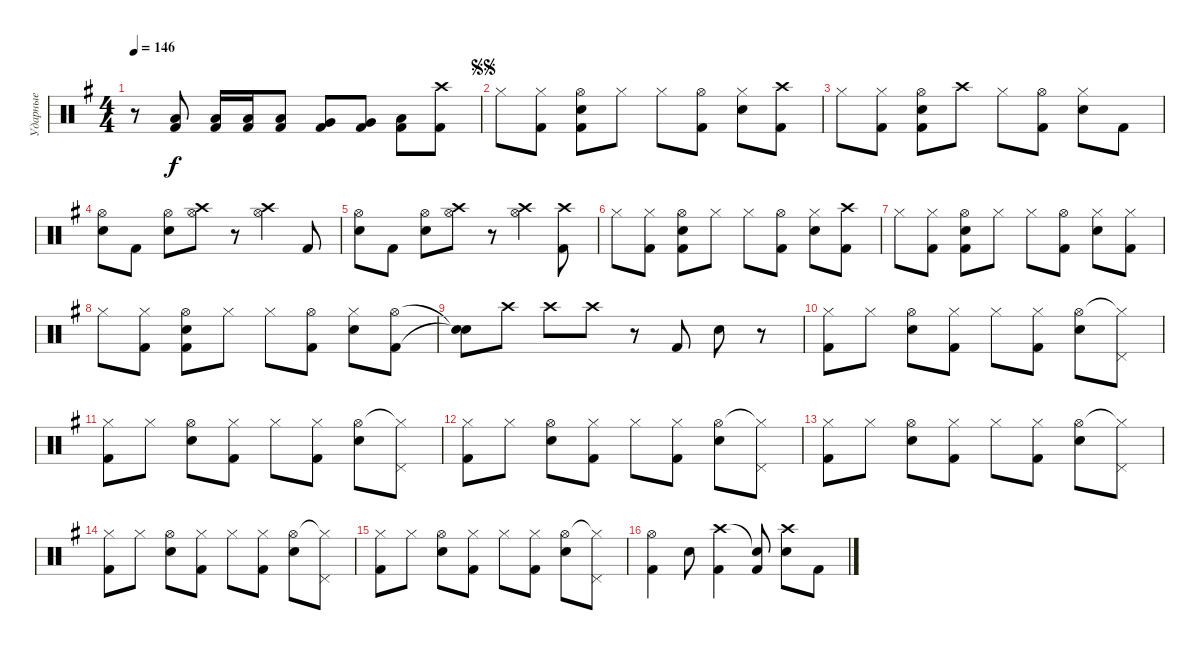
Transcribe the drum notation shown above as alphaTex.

\track ("Ударные" "Ударные") {instrument percussion}
\staff {score}
\articulation defaults
\ts (4 4)
\tempo 146
\clef neutral
\ks g
r.8{dy f} ("Low Tom (hit)" "Kick (hit) 2").8 ("Low Tom (hit)" "Kick (hit) 2").16 ("Low Tom (hit)" "Kick (hit) 2").16 ("Low Tom (hit)" "Kick (hit) 2").8 ("Very Low Tom (hit)" "Kick (hit) 2").8 ("Very Low Tom (hit)" "Kick (hit) 2").8 ("Low Floor Tom (hit)" "Kick (hit) 2").8 ("Crash high (hit)" "Kick (hit) 2").8 |
\jump segnosegno "Hi-Hat (closed)".8
("Hi-Hat (closed)" "Kick (hit) 2").8 ("Hi-Hat (open)" "Snare (hit) 2" "Kick (hit) 2").8 "Hi-Hat (closed)".8 "Hi-Hat (closed)".8 ("Hi-Hat (open)" "Kick (hit) 2").8 ("Hi-Hat (closed)" "Snare (hit) 2").8 ("Crash high (hit)" "Kick (hit) 2").8 |
"Hi-Hat (closed)".8 ("Hi-Hat (closed)" "Kick (hit) 2").8 ("Hi-Hat (open)" "Snare (hit) 2" "Kick (hit) 2").8 "Crash high (hit)".8 "Hi-Hat (closed)".8 ("Hi-Hat (open)" "Kick (hit) 2").8 ("Hi-Hat (closed)" "Snare (hit) 2").8 "Kick (hit) 2".8 |
("Hi-Hat (open)" "Snare (hit) 2").8 "Kick (hit) 2".8 ("Hi-Hat (open)" "Snare (hit) 2").8 ("Hi-Hat (open)" "Crash high (hit)").8 r.8 ("Hi-Hat (open)" "Crash high (hit)").4 "Kick (hit) 2".8 |
("Hi-Hat (open)" "Snare (hit) 2").8 "Kick (hit) 2".8 ("Hi-Hat (open)" "Snare (hit) 2").8 ("Hi-Hat (open)" "Crash high (hit)").8 r.8 ("Hi-Hat (open)" "Crash high (hit)").4 ("Crash high (hit)" "Kick (hit) 2").8 |
"Hi-Hat (closed)".8 ("Hi-Hat (closed)" "Kick (hit) 2").8 ("Hi-Hat (open)" "Snare (hit) 2" "Kick (hit) 2").8 "Hi-Hat (closed)".8 "Hi-Hat (closed)".8 ("Hi-Hat (open)" "Kick (hit) 2").8 ("Hi-Hat (closed)" "Snare (hit) 2").8 ("Crash high (hit)" "Kick (hit) 2").8 |
"Hi-Hat (closed)".8 ("Hi-Hat (closed)" "Kick (hit) 2").8 ("Hi-Hat (open)" "Snare (hit) 2" "Kick (hit) 2").8 "Hi-Hat (closed)".8 "Hi-Hat (closed)".8 ("Hi-Hat (open)" "Kick (hit) 2").8 ("Hi-Hat (closed)" "Snare (hit) 2").8 ("Hi-Hat (closed)" "Kick (hit) 2").8 |
"Hi-Hat (closed)".8 ("Hi-Hat (closed)" "Kick (hit) 2").8 ("Hi-Hat (open)" "Snare (hit) 2" "Kick (hit) 2").8 "Hi-Hat (closed)".8 "Hi-Hat (closed)".8 ("Hi-Hat (open)" "Kick (hit) 2").8 ("Hi-Hat (closed)" "Snare (hit) 2").8 ("Hi-Hat (open)" "Kick (hit) 2").8 |
("Snare (hit)"{t} "Snare (hit)"{t}).8 "Crash high (hit)".8 "Crash high (hit)".8 "Crash high (hit)".8 r.8 "Kick (hit) 2".8 "Snare (hit) 2".8 r.8 |
("Hi-Hat (closed)" "Kick (hit) 2").8 "Hi-Hat (closed)".8 ("Hi-Hat (open)" "Snare (hit) 2").8 ("Hi-Hat (closed)" "Kick (hit) 2").8 "Hi-Hat (closed)".8 ("Hi-Hat (closed)" "Kick (hit) 2").8 ("Hi-Hat (open)" "Snare (hit) 2").8 ("Hi-Hat (closed)"{t} "Pedal Hi-Hat (hit)").8 |
("Hi-Hat (closed)" "Kick (hit) 2").8 "Hi-Hat (closed)".8 ("Hi-Hat (open)" "Snare (hit) 2").8 ("Hi-Hat (closed)" "Kick (hit) 2").8 "Hi-Hat (closed)".8 ("Hi-Hat (closed)" "Kick (hit) 2").8 ("Hi-Hat (open)" "Snare (hit) 2").8 ("Hi-Hat (closed)"{t} "Pedal Hi-Hat (hit)").8 |
("Hi-Hat (closed)" "Kick (hit) 2").8 "Hi-Hat (closed)".8 ("Hi-Hat (open)" "Snare (hit) 2").8 ("Hi-Hat (closed)" "Kick (hit) 2").8 "Hi-Hat (closed)".8 ("Hi-Hat (closed)" "Kick (hit) 2").8 ("Hi-Hat (open)" "Snare (hit) 2").8 ("Hi-Hat (closed)"{t} "Pedal Hi-Hat (hit)").8 |
("Hi-Hat (closed)" "Kick (hit) 2").8 "Hi-Hat (closed)".8 ("Hi-Hat (open)" "Snare (hit) 2").8 ("Hi-Hat (closed)" "Kick (hit) 2").8 "Hi-Hat (closed)".8 ("Hi-Hat (closed)" "Kick (hit) 2").8 ("Hi-Hat (open)" "Snare (hit) 2").8 ("Hi-Hat (closed)"{t} "Pedal Hi-Hat (hit)").8 |
("Hi-Hat (closed)" "Kick (hit) 2").8 "Hi-Hat (closed)".8 ("Hi-Hat (open)" "Snare (hit) 2").8 ("Hi-Hat (closed)" "Kick (hit) 2").8 "Hi-Hat (closed)".8 ("Hi-Hat (closed)" "Kick (hit) 2").8 ("Hi-Hat (open)" "Snare (hit) 2").8 ("Hi-Hat (closed)"{t} "Pedal Hi-Hat (hit)").8 |
("Hi-Hat (closed)" "Kick (hit) 2").8 "Hi-Hat (closed)".8 ("Hi-Hat (open)" "Snare (hit) 2").8 ("Hi-Hat (closed)" "Kick (hit) 2").8 "Hi-Hat (closed)".8 ("Hi-Hat (closed)" "Kick (hit) 2").8 ("Hi-Hat (open)" "Snare (hit) 2").8 ("Hi-Hat (closed)"{t} "Pedal Hi-Hat (hit)").8 |
("Hi-Hat (open)" "Kick (hit) 2").4 "Snare (hit) 2".8 ("Crash high (hit)" "Kick (hit) 2").4 ("Snare (hit)"{t} "Kick (hit) 2").8 ("Crash high (hit)" "Snare (hit) 2").8 "Kick (hit) 2".8
